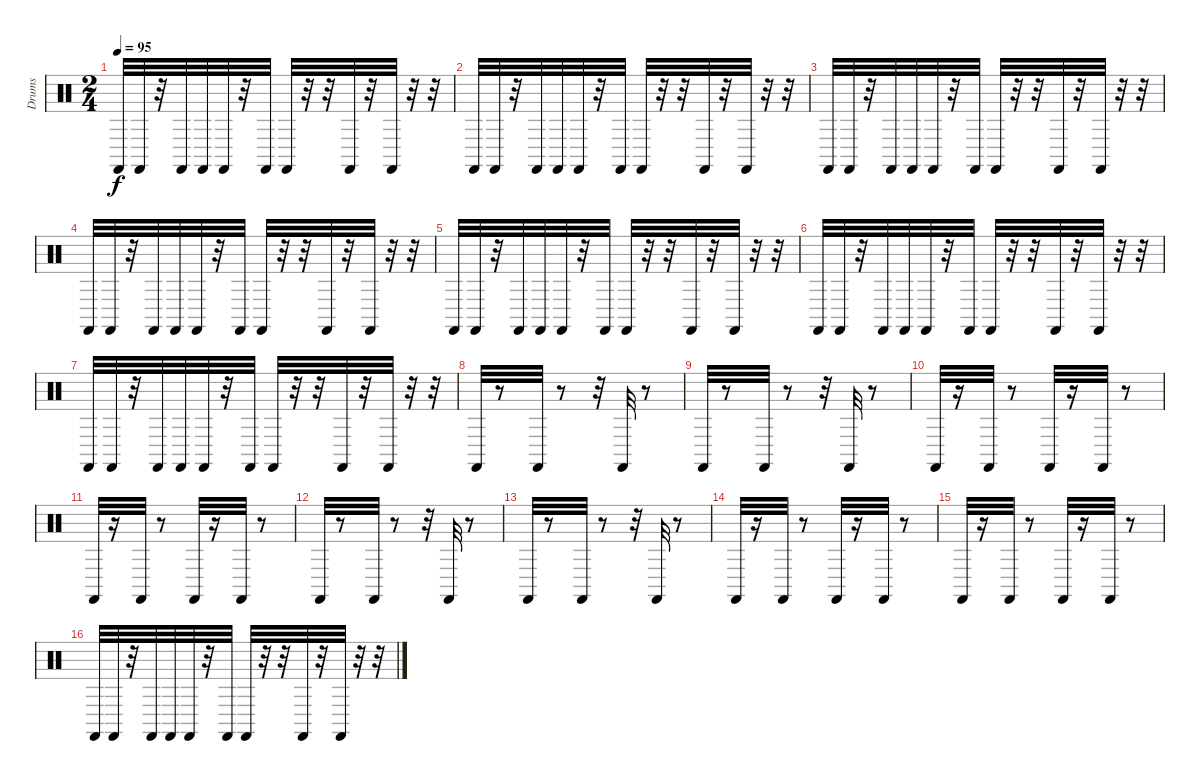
\track ("Drums" "Drums") {instrument percussion}
\staff {score}
\articulation defaults
\ts (2 4)
\tempo 95
\clef neutral
\ks c "Castanets (hit)".32{dy f} "Castanets (hit)".32
r.32 "Castanets (hit)".32 "Castanets (hit)".32 "Castanets (hit)".32 r.32 "Castanets (hit)".32 "Castanets (hit)".32 r.32 r.32 "Castanets (hit)".32 r.32 "Castanets (hit)".32 r.32 r.32 |
"Castanets (hit)".32 "Castanets (hit)".32 r.32 "Castanets (hit)".32 "Castanets (hit)".32 "Castanets (hit)".32 r.32 "Castanets (hit)".32 "Castanets (hit)".32 r.32 r.32 "Castanets (hit)".32 r.32 "Castanets (hit)".32 r.32 r.32 |
"Castanets (hit)".32 "Castanets (hit)".32 r.32 "Castanets (hit)".32 "Castanets (hit)".32 "Castanets (hit)".32 r.32 "Castanets (hit)".32 "Castanets (hit)".32 r.32 r.32 "Castanets (hit)".32 r.32 "Castanets (hit)".32 r.32 r.32 |
"Castanets (hit)".32 "Castanets (hit)".32 r.32 "Castanets (hit)".32 "Castanets (hit)".32 "Castanets (hit)".32 r.32 "Castanets (hit)".32 "Castanets (hit)".32 r.32 r.32 "Castanets (hit)".32 r.32 "Castanets (hit)".32 r.32 r.32 |
"Castanets (hit)".32 "Castanets (hit)".32 r.32 "Castanets (hit)".32 "Castanets (hit)".32 "Castanets (hit)".32 r.32 "Castanets (hit)".32 "Castanets (hit)".32 r.32 r.32 "Castanets (hit)".32 r.32 "Castanets (hit)".32 r.32 r.32 |
"Castanets (hit)".32 "Castanets (hit)".32 r.32 "Castanets (hit)".32 "Castanets (hit)".32 "Castanets (hit)".32 r.32 "Castanets (hit)".32 "Castanets (hit)".32 r.32 r.32 "Castanets (hit)".32 r.32 "Castanets (hit)".32 r.32 r.32 |
"Castanets (hit)".32 "Castanets (hit)".32 r.32 "Castanets (hit)".32 "Castanets (hit)".32 "Castanets (hit)".32 r.32 "Castanets (hit)".32 "Castanets (hit)".32 r.32 r.32 "Castanets (hit)".32 r.32 "Castanets (hit)".32 r.32 r.32 |
"Castanets (hit)".32 r.8 "Castanets (hit)".32 r.8 r.32 "Castanets (hit)".32 r.8 |
"Castanets (hit)".32 r.8 "Castanets (hit)".32 r.8 r.32 "Castanets (hit)".32 r.8 |
"Castanets (hit)".32 r.16 "Castanets (hit)".32 r.8 "Castanets (hit)".32 r.16 "Castanets (hit)".32 r.8 |
"Castanets (hit)".32 r.16 "Castanets (hit)".32 r.8 "Castanets (hit)".32 r.16 "Castanets (hit)".32 r.8 |
"Castanets (hit)".32 r.8 "Castanets (hit)".32 r.8 r.32 "Castanets (hit)".32 r.8 |
"Castanets (hit)".32 r.8 "Castanets (hit)".32 r.8 r.32 "Castanets (hit)".32 r.8 |
"Castanets (hit)".32 r.16 "Castanets (hit)".32 r.8 "Castanets (hit)".32 r.16 "Castanets (hit)".32 r.8 |
"Castanets (hit)".32 r.16 "Castanets (hit)".32 r.8 "Castanets (hit)".32 r.16 "Castanets (hit)".32 r.8 |
"Castanets (hit)".32 "Castanets (hit)".32 r.32 "Castanets (hit)".32 "Castanets (hit)".32 "Castanets (hit)".32 r.32 "Castanets (hit)".32 "Castanets (hit)".32 r.32 r.32 "Castanets (hit)".32 r.32 "Castanets (hit)".32 r.32 r.32
